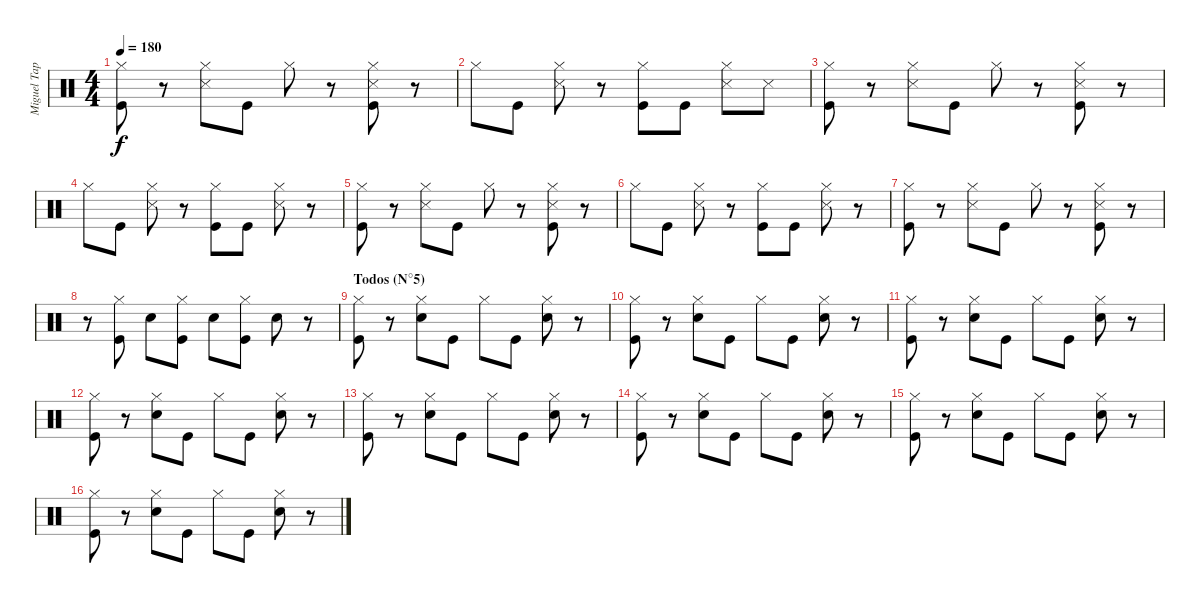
\track ("Miguel Tapia (Batería)" "Miguel Tap") {instrument percussion}
\staff {score}
\articulation defaults
\ts (4 4)
\tempo 180
\clef neutral
\ks c
("Hi-Hat (closed)" "Kick (hit)").8{dy f} r.8 ("Hi-Hat (closed)" "Snare (side stick) 3").8 "Kick (hit)".8 "Hi-Hat (closed)".8 r.8 ("Hi-Hat (closed)" "Snare (side stick) 3" "Kick (hit)").8 r.8 |
"Hi-Hat (closed)".8 "Kick (hit)".8 ("Hi-Hat (closed)" "Snare (side stick) 3").8 r.8 ("Hi-Hat (closed)" "Kick (hit)").8 "Kick (hit)".8 ("Hi-Hat (closed)" "Snare (side stick) 3").8 "Snare (side stick) 3".8 |
("Hi-Hat (closed)" "Kick (hit)").8 r.8 ("Hi-Hat (closed)" "Snare (side stick) 3").8 "Kick (hit)".8 "Hi-Hat (closed)".8 r.8 ("Hi-Hat (closed)" "Snare (side stick) 3" "Kick (hit)").8 r.8 |
"Hi-Hat (closed)".8 "Kick (hit)".8 ("Hi-Hat (closed)" "Snare (side stick) 3").8 r.8 ("Hi-Hat (closed)" "Kick (hit)").8 "Kick (hit)".8 ("Hi-Hat (closed)" "Snare (side stick) 3").8 r.8 |
("Hi-Hat (closed)" "Kick (hit)").8 r.8 ("Hi-Hat (closed)" "Snare (side stick) 3").8 "Kick (hit)".8 "Hi-Hat (closed)".8 r.8 ("Hi-Hat (closed)" "Snare (side stick) 3" "Kick (hit)").8 r.8 |
"Hi-Hat (closed)".8 "Kick (hit)".8 ("Hi-Hat (closed)" "Snare (side stick) 3").8 r.8 ("Hi-Hat (closed)" "Kick (hit)").8 "Kick (hit)".8 ("Hi-Hat (closed)" "Snare (side stick) 3").8 r.8 |
("Hi-Hat (closed)" "Kick (hit)").8 r.8 ("Hi-Hat (closed)" "Snare (side stick) 3").8 "Kick (hit)".8 "Hi-Hat (closed)".8 r.8 ("Hi-Hat (closed)" "Snare (side stick) 3" "Kick (hit)").8 r.8 |
r.8 ("Hi-Hat (closed)" "Kick (hit)").8 "Snare (hit) 2".8 ("Hi-Hat (closed)" "Kick (hit)").8 "Snare (hit) 2".8 ("Hi-Hat (closed)" "Kick (hit)").8 "Snare (hit) 2".8 r.8 |
\section ("" "Todos (N°5)")
("Hi-Hat (closed)" "Kick (hit)").8 r.8 ("Hi-Hat (closed)" "Snare (hit) 2").8 "Kick (hit)".8 "Hi-Hat (closed)".8 "Kick (hit)".8 ("Hi-Hat (closed)" "Snare (hit) 2").8 r.8 |
("Hi-Hat (closed)" "Kick (hit)").8 r.8 ("Hi-Hat (closed)" "Snare (hit) 2").8 "Kick (hit)".8 "Hi-Hat (closed)".8 "Kick (hit)".8 ("Hi-Hat (closed)" "Snare (hit) 2").8 r.8 |
("Hi-Hat (closed)" "Kick (hit)").8 r.8 ("Hi-Hat (closed)" "Snare (hit) 2").8 "Kick (hit)".8 "Hi-Hat (closed)".8 "Kick (hit)".8 ("Hi-Hat (closed)" "Snare (hit) 2").8 r.8 |
("Hi-Hat (closed)" "Kick (hit)").8 r.8 ("Hi-Hat (closed)" "Snare (hit) 2").8 "Kick (hit)".8 "Hi-Hat (closed)".8 "Kick (hit)".8 ("Hi-Hat (closed)" "Snare (hit) 2").8 r.8 |
("Hi-Hat (closed)" "Kick (hit)").8 r.8 ("Hi-Hat (closed)" "Snare (hit) 2").8 "Kick (hit)".8 "Hi-Hat (closed)".8 "Kick (hit)".8 ("Hi-Hat (closed)" "Snare (hit) 2").8 r.8 |
("Hi-Hat (closed)" "Kick (hit)").8 r.8 ("Hi-Hat (closed)" "Snare (hit) 2").8 "Kick (hit)".8 "Hi-Hat (closed)".8 "Kick (hit)".8 ("Hi-Hat (closed)" "Snare (hit) 2").8 r.8 |
("Hi-Hat (closed)" "Kick (hit)").8 r.8 ("Hi-Hat (closed)" "Snare (hit) 2").8 "Kick (hit)".8 "Hi-Hat (closed)".8 "Kick (hit)".8 ("Hi-Hat (closed)" "Snare (hit) 2").8 r.8 |
("Hi-Hat (closed)" "Kick (hit)").8 r.8 ("Hi-Hat (closed)" "Snare (hit) 2").8 "Kick (hit)".8 "Hi-Hat (closed)".8 "Kick (hit)".8 ("Hi-Hat (closed)" "Snare (hit) 2").8 r.8
